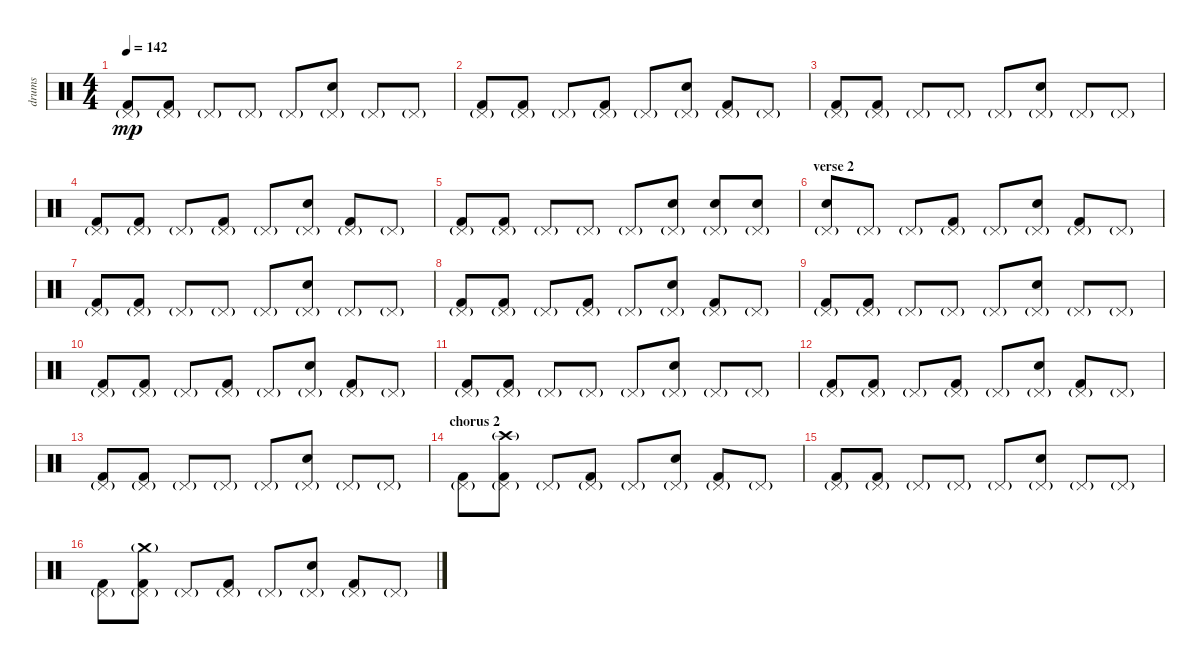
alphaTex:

\track ("drums" "drums") {instrument percussion}
\staff {score}
\articulation defaults
\ts (4 4)
\tempo 142
\clef neutral
\ks c
("Kick (hit) 2" "Pedal Hi-Hat (hit)"{g}).8{dy mp} ("Kick (hit) 2" "Pedal Hi-Hat (hit)"{g}).8 "Pedal Hi-Hat (hit)"{g}.8 "Pedal Hi-Hat (hit)"{g}.8 "Pedal Hi-Hat (hit)"{g}.8 ("Snare (hit) 2" "Pedal Hi-Hat (hit)"{g}).8 "Pedal Hi-Hat (hit)"{g}.8 "Pedal Hi-Hat (hit)"{g}.8 |
("Kick (hit) 2" "Pedal Hi-Hat (hit)"{g}).8 ("Kick (hit) 2" "Pedal Hi-Hat (hit)"{g}).8 "Pedal Hi-Hat (hit)"{g}.8 ("Kick (hit) 2" "Pedal Hi-Hat (hit)"{g}).8 "Pedal Hi-Hat (hit)"{g}.8 ("Snare (hit) 2" "Pedal Hi-Hat (hit)"{g}).8 ("Kick (hit) 2" "Pedal Hi-Hat (hit)"{g}).8 "Pedal Hi-Hat (hit)"{g}.8 |
("Kick (hit) 2" "Pedal Hi-Hat (hit)"{g}).8 ("Kick (hit) 2" "Pedal Hi-Hat (hit)"{g}).8 "Pedal Hi-Hat (hit)"{g}.8 "Pedal Hi-Hat (hit)"{g}.8 "Pedal Hi-Hat (hit)"{g}.8 ("Snare (hit) 2" "Pedal Hi-Hat (hit)"{g}).8 "Pedal Hi-Hat (hit)"{g}.8 "Pedal Hi-Hat (hit)"{g}.8 |
("Kick (hit) 2" "Pedal Hi-Hat (hit)"{g}).8 ("Kick (hit) 2" "Pedal Hi-Hat (hit)"{g}).8 "Pedal Hi-Hat (hit)"{g}.8 ("Kick (hit) 2" "Pedal Hi-Hat (hit)"{g}).8 "Pedal Hi-Hat (hit)"{g}.8 ("Snare (hit) 2" "Pedal Hi-Hat (hit)"{g}).8 ("Kick (hit) 2" "Pedal Hi-Hat (hit)"{g}).8 "Pedal Hi-Hat (hit)"{g}.8 |
("Kick (hit) 2" "Pedal Hi-Hat (hit)"{g}).8 ("Kick (hit) 2" "Pedal Hi-Hat (hit)"{g}).8 "Pedal Hi-Hat (hit)"{g}.8 "Pedal Hi-Hat (hit)"{g}.8 "Pedal Hi-Hat (hit)"{g}.8 ("Snare (hit) 2" "Pedal Hi-Hat (hit)"{g}).8 ("Snare (hit) 2" "Pedal Hi-Hat (hit)"{g}).8 ("Snare (hit) 2" "Pedal Hi-Hat (hit)"{g}).8 |
\section ("" "verse 2")
("Snare (hit) 2" "Pedal Hi-Hat (hit)"{g}).8 "Pedal Hi-Hat (hit)"{g}.8 "Pedal Hi-Hat (hit)"{g}.8 ("Kick (hit) 2" "Pedal Hi-Hat (hit)"{g}).8 "Pedal Hi-Hat (hit)"{g}.8 ("Snare (hit) 2" "Pedal Hi-Hat (hit)"{g}).8 ("Kick (hit) 2" "Pedal Hi-Hat (hit)"{g}).8 "Pedal Hi-Hat (hit)"{g}.8 |
("Kick (hit) 2" "Pedal Hi-Hat (hit)"{g}).8 ("Kick (hit) 2" "Pedal Hi-Hat (hit)"{g}).8 "Pedal Hi-Hat (hit)"{g}.8 "Pedal Hi-Hat (hit)"{g}.8 "Pedal Hi-Hat (hit)"{g}.8 ("Snare (hit) 2" "Pedal Hi-Hat (hit)"{g}).8 "Pedal Hi-Hat (hit)"{g}.8 "Pedal Hi-Hat (hit)"{g}.8 |
("Kick (hit) 2" "Pedal Hi-Hat (hit)"{g}).8 ("Kick (hit) 2" "Pedal Hi-Hat (hit)"{g}).8 "Pedal Hi-Hat (hit)"{g}.8 ("Kick (hit) 2" "Pedal Hi-Hat (hit)"{g}).8 "Pedal Hi-Hat (hit)"{g}.8 ("Snare (hit) 2" "Pedal Hi-Hat (hit)"{g}).8 ("Kick (hit) 2" "Pedal Hi-Hat (hit)"{g}).8 "Pedal Hi-Hat (hit)"{g}.8 |
("Kick (hit) 2" "Pedal Hi-Hat (hit)"{g}).8 ("Kick (hit) 2" "Pedal Hi-Hat (hit)"{g}).8 "Pedal Hi-Hat (hit)"{g}.8 "Pedal Hi-Hat (hit)"{g}.8 "Pedal Hi-Hat (hit)"{g}.8 ("Snare (hit) 2" "Pedal Hi-Hat (hit)"{g}).8 "Pedal Hi-Hat (hit)"{g}.8 "Pedal Hi-Hat (hit)"{g}.8 |
("Kick (hit) 2" "Pedal Hi-Hat (hit)"{g}).8 ("Kick (hit) 2" "Pedal Hi-Hat (hit)"{g}).8 "Pedal Hi-Hat (hit)"{g}.8 ("Kick (hit) 2" "Pedal Hi-Hat (hit)"{g}).8 "Pedal Hi-Hat (hit)"{g}.8 ("Snare (hit) 2" "Pedal Hi-Hat (hit)"{g}).8 ("Kick (hit) 2" "Pedal Hi-Hat (hit)"{g}).8 "Pedal Hi-Hat (hit)"{g}.8 |
("Kick (hit) 2" "Pedal Hi-Hat (hit)"{g}).8 ("Kick (hit) 2" "Pedal Hi-Hat (hit)"{g}).8 "Pedal Hi-Hat (hit)"{g}.8 "Pedal Hi-Hat (hit)"{g}.8 "Pedal Hi-Hat (hit)"{g}.8 ("Snare (hit) 2" "Pedal Hi-Hat (hit)"{g}).8 "Pedal Hi-Hat (hit)"{g}.8 "Pedal Hi-Hat (hit)"{g}.8 |
("Kick (hit) 2" "Pedal Hi-Hat (hit)"{g}).8 ("Kick (hit) 2" "Pedal Hi-Hat (hit)"{g}).8 "Pedal Hi-Hat (hit)"{g}.8 ("Kick (hit) 2" "Pedal Hi-Hat (hit)"{g}).8 "Pedal Hi-Hat (hit)"{g}.8 ("Snare (hit) 2" "Pedal Hi-Hat (hit)"{g}).8 ("Kick (hit) 2" "Pedal Hi-Hat (hit)"{g}).8 "Pedal Hi-Hat (hit)"{g}.8 |
("Kick (hit) 2" "Pedal Hi-Hat (hit)"{g}).8 ("Kick (hit) 2" "Pedal Hi-Hat (hit)"{g}).8 "Pedal Hi-Hat (hit)"{g}.8 "Pedal Hi-Hat (hit)"{g}.8 "Pedal Hi-Hat (hit)"{g}.8 ("Snare (hit) 2" "Pedal Hi-Hat (hit)"{g}).8 "Pedal Hi-Hat (hit)"{g}.8 "Pedal Hi-Hat (hit)"{g}.8 |
\section ("" "chorus 2")
("Kick (hit) 2" "Pedal Hi-Hat (hit)"{g}).8 ("Kick (hit) 2" "Crash high (hit)"{g} "Pedal Hi-Hat (hit)"{g}).8 "Pedal Hi-Hat (hit)"{g}.8 ("Kick (hit) 2" "Pedal Hi-Hat (hit)"{g}).8 "Pedal Hi-Hat (hit)"{g}.8 ("Snare (hit) 2" "Pedal Hi-Hat (hit)"{g}).8 ("Kick (hit) 2" "Pedal Hi-Hat (hit)"{g}).8 "Pedal Hi-Hat (hit)"{g}.8 |
("Kick (hit) 2" "Pedal Hi-Hat (hit)"{g}).8 ("Kick (hit) 2" "Pedal Hi-Hat (hit)"{g}).8 "Pedal Hi-Hat (hit)"{g}.8 "Pedal Hi-Hat (hit)"{g}.8 "Pedal Hi-Hat (hit)"{g}.8 ("Snare (hit) 2" "Pedal Hi-Hat (hit)"{g}).8 "Pedal Hi-Hat (hit)"{g}.8 "Pedal Hi-Hat (hit)"{g}.8 |
("Kick (hit) 2" "Pedal Hi-Hat (hit)"{g}).8 ("Kick (hit) 2" "Crash medium (hit)"{g} "Pedal Hi-Hat (hit)"{g}).8 "Pedal Hi-Hat (hit)"{g}.8 ("Kick (hit) 2" "Pedal Hi-Hat (hit)"{g}).8 "Pedal Hi-Hat (hit)"{g}.8 ("Snare (hit) 2" "Pedal Hi-Hat (hit)"{g}).8 ("Kick (hit) 2" "Pedal Hi-Hat (hit)"{g}).8 "Pedal Hi-Hat (hit)"{g}.8
